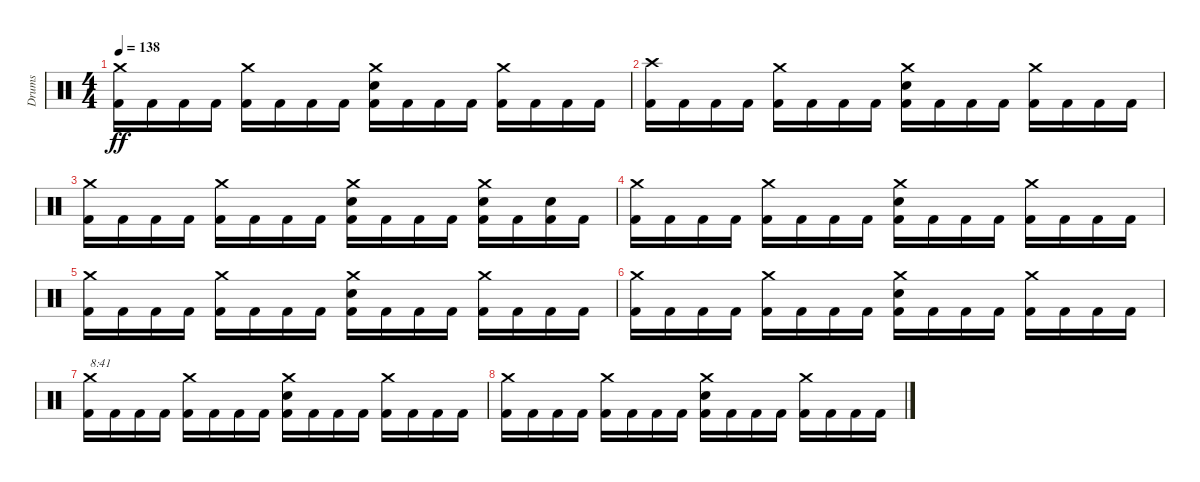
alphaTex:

\track ("Drums" "Drums") {instrument percussion}
\staff {score}
\articulation defaults
\ts (4 4)
\tempo 138
\clef neutral
\ks c
("Crash medium (hit)" "Kick (hit) 2").16{dy ff} "Kick (hit) 2".16 "Kick (hit) 2".16 "Kick (hit) 2".16 ("Crash medium (hit)" "Kick (hit) 2").16 "Kick (hit) 2".16 "Kick (hit) 2".16 "Kick (hit) 2".16 ("Crash medium (hit)" "Electric Snare (hit)" "Kick (hit) 2").16 "Kick (hit) 2".16 "Kick (hit) 2".16 "Kick (hit) 2".16 ("Crash medium (hit)" "Kick (hit) 2").16 "Kick (hit) 2".16 "Kick (hit) 2".16 "Kick (hit) 2".16 |
("Crash high (hit)" "Kick (hit) 2").16 "Kick (hit) 2".16 "Kick (hit) 2".16 "Kick (hit) 2".16 ("Crash medium (hit)" "Kick (hit) 2").16 "Kick (hit) 2".16 "Kick (hit) 2".16 "Kick (hit) 2".16 ("Crash medium (hit)" "Electric Snare (hit)" "Kick (hit) 2").16 "Kick (hit) 2".16 "Kick (hit) 2".16 "Kick (hit) 2".16 ("Crash medium (hit)" "Kick (hit) 2").16 "Kick (hit) 2".16 "Kick (hit) 2".16 "Kick (hit) 2".16 |
("Crash medium (hit)" "Kick (hit) 2").16 "Kick (hit) 2".16 "Kick (hit) 2".16 "Kick (hit) 2".16 ("Crash medium (hit)" "Kick (hit) 2").16 "Kick (hit) 2".16 "Kick (hit) 2".16 "Kick (hit) 2".16 ("Crash medium (hit)" "Electric Snare (hit)" "Kick (hit) 2").16 "Kick (hit) 2".16 "Kick (hit) 2".16 "Kick (hit) 2".16 ("Crash medium (hit)" "Electric Snare (hit)" "Kick (hit) 2").16 "Kick (hit) 2".16 ("Electric Snare (hit)" "Kick (hit) 2").16 "Kick (hit) 2".16 |
("Crash medium (hit)" "Kick (hit) 2").16 "Kick (hit) 2".16 "Kick (hit) 2".16 "Kick (hit) 2".16 ("Crash medium (hit)" "Kick (hit) 2").16 "Kick (hit) 2".16 "Kick (hit) 2".16 "Kick (hit) 2".16 ("Crash medium (hit)" "Electric Snare (hit)" "Kick (hit) 2").16 "Kick (hit) 2".16 "Kick (hit) 2".16 "Kick (hit) 2".16 ("Crash medium (hit)" "Kick (hit) 2").16 "Kick (hit) 2".16 "Kick (hit) 2".16 "Kick (hit) 2".16 |
("Crash medium (hit)" "Kick (hit) 2").16 "Kick (hit) 2".16 "Kick (hit) 2".16 "Kick (hit) 2".16 ("Crash medium (hit)" "Kick (hit) 2").16 "Kick (hit) 2".16 "Kick (hit) 2".16 "Kick (hit) 2".16 ("Crash medium (hit)" "Electric Snare (hit)" "Kick (hit) 2").16 "Kick (hit) 2".16 "Kick (hit) 2".16 "Kick (hit) 2".16 ("Crash medium (hit)" "Kick (hit) 2").16 "Kick (hit) 2".16 "Kick (hit) 2".16 "Kick (hit) 2".16 |
("Crash medium (hit)" "Kick (hit) 2").16 "Kick (hit) 2".16 "Kick (hit) 2".16 "Kick (hit) 2".16 ("Crash medium (hit)" "Kick (hit) 2").16 "Kick (hit) 2".16 "Kick (hit) 2".16 "Kick (hit) 2".16 ("Crash medium (hit)" "Electric Snare (hit)" "Kick (hit) 2").16 "Kick (hit) 2".16 "Kick (hit) 2".16 "Kick (hit) 2".16 ("Crash medium (hit)" "Kick (hit) 2").16 "Kick (hit) 2".16 "Kick (hit) 2".16 "Kick (hit) 2".16 |
("Crash medium (hit)" "Kick (hit) 2").16{txt "8:41"} "Kick (hit) 2".16 "Kick (hit) 2".16 "Kick (hit) 2".16 ("Crash medium (hit)" "Kick (hit) 2").16 "Kick (hit) 2".16 "Kick (hit) 2".16 "Kick (hit) 2".16 ("Crash medium (hit)" "Electric Snare (hit)" "Kick (hit) 2").16 "Kick (hit) 2".16 "Kick (hit) 2".16 "Kick (hit) 2".16 ("Crash medium (hit)" "Kick (hit) 2").16 "Kick (hit) 2".16 "Kick (hit) 2".16 "Kick (hit) 2".16 |
("Crash medium (hit)" "Kick (hit) 2").16 "Kick (hit) 2".16 "Kick (hit) 2".16 "Kick (hit) 2".16 ("Crash medium (hit)" "Kick (hit) 2").16 "Kick (hit) 2".16 "Kick (hit) 2".16 "Kick (hit) 2".16 ("Crash medium (hit)" "Electric Snare (hit)" "Kick (hit) 2").16 "Kick (hit) 2".16 "Kick (hit) 2".16 "Kick (hit) 2".16 ("Crash medium (hit)" "Kick (hit) 2").16 "Kick (hit) 2".16 "Kick (hit) 2".16 "Kick (hit) 2".16
